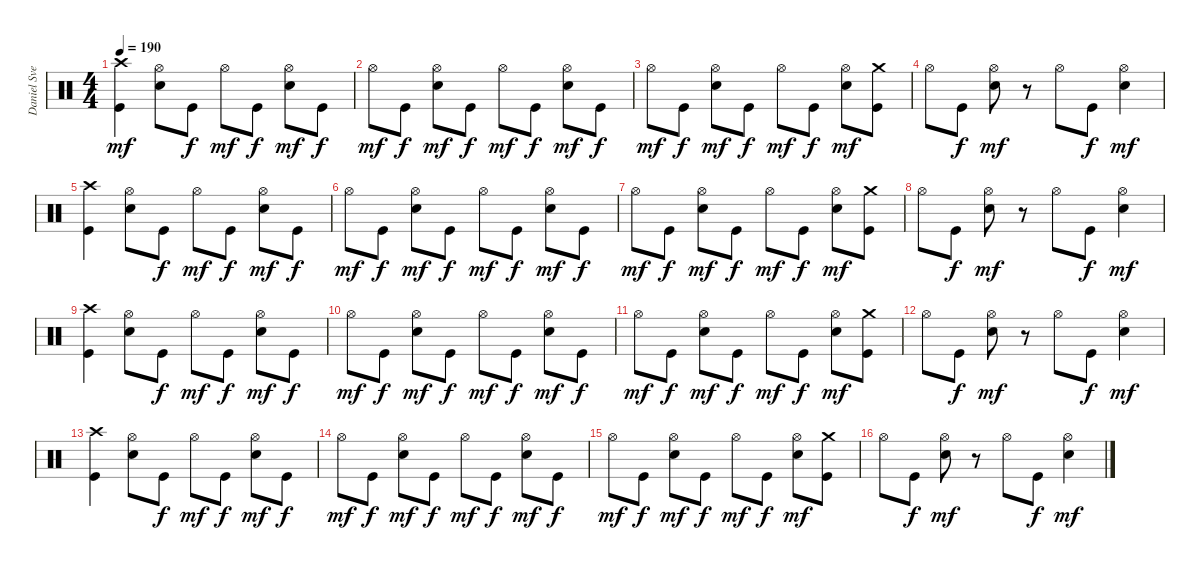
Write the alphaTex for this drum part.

\track ("Daniel Svensson" "Daniel Sve") {instrument percussion}
\staff {score}
\articulation defaults
\ts (4 4)
\tempo 190
\clef neutral
\ks c
("Kick (hit)" "Crash high (hit)").4{dy mf} ("Electric Snare (hit)" "Hi-Hat (open)").8 "Kick (hit)".8{dy f} "Hi-Hat (open)".8{dy mf} "Kick (hit)".8{dy f} ("Electric Snare (hit)" "Hi-Hat (open)").8{dy mf} "Kick (hit)".8{dy f} |
"Hi-Hat (open)".8{dy mf} "Kick (hit)".8{dy f} ("Electric Snare (hit)" "Hi-Hat (open)").8{dy mf} "Kick (hit)".8{dy f} "Hi-Hat (open)".8{dy mf} "Kick (hit)".8{dy f} ("Electric Snare (hit)" "Hi-Hat (open)").8{dy mf} "Kick (hit)".8{dy f} |
"Hi-Hat (open)".8{dy mf} "Kick (hit)".8{dy f} ("Electric Snare (hit)" "Hi-Hat (open)").8{dy mf} "Kick (hit)".8{dy f} "Hi-Hat (open)".8{dy mf} "Kick (hit)".8{dy f} ("Electric Snare (hit)" "Hi-Hat (open)").8{dy mf} ("Kick (hit)" "Crash medium (hit)").8 |
"Hi-Hat (open)".8 "Kick (hit)".8{dy f} ("Electric Snare (hit)" "Hi-Hat (open)").8{dy mf} r.8 "Hi-Hat (open)".8 "Kick (hit)".8{dy f} ("Electric Snare (hit)" "Hi-Hat (open)").4{dy mf} |
("Kick (hit)" "Crash high (hit)").4 ("Electric Snare (hit)" "Hi-Hat (open)").8 "Kick (hit)".8{dy f} "Hi-Hat (open)".8{dy mf} "Kick (hit)".8{dy f} ("Electric Snare (hit)" "Hi-Hat (open)").8{dy mf} "Kick (hit)".8{dy f} |
"Hi-Hat (open)".8{dy mf} "Kick (hit)".8{dy f} ("Electric Snare (hit)" "Hi-Hat (open)").8{dy mf} "Kick (hit)".8{dy f} "Hi-Hat (open)".8{dy mf} "Kick (hit)".8{dy f} ("Electric Snare (hit)" "Hi-Hat (open)").8{dy mf} "Kick (hit)".8{dy f} |
"Hi-Hat (open)".8{dy mf} "Kick (hit)".8{dy f} ("Electric Snare (hit)" "Hi-Hat (open)").8{dy mf} "Kick (hit)".8{dy f} "Hi-Hat (open)".8{dy mf} "Kick (hit)".8{dy f} ("Electric Snare (hit)" "Hi-Hat (open)").8{dy mf} ("Kick (hit)" "Crash medium (hit)").8 |
"Hi-Hat (open)".8 "Kick (hit)".8{dy f} ("Electric Snare (hit)" "Hi-Hat (open)").8{dy mf} r.8 "Hi-Hat (open)".8 "Kick (hit)".8{dy f} ("Electric Snare (hit)" "Hi-Hat (open)").4{dy mf} |
("Kick (hit)" "Crash high (hit)").4 ("Electric Snare (hit)" "Hi-Hat (open)").8 "Kick (hit)".8{dy f} "Hi-Hat (open)".8{dy mf} "Kick (hit)".8{dy f} ("Electric Snare (hit)" "Hi-Hat (open)").8{dy mf} "Kick (hit)".8{dy f} |
"Hi-Hat (open)".8{dy mf} "Kick (hit)".8{dy f} ("Electric Snare (hit)" "Hi-Hat (open)").8{dy mf} "Kick (hit)".8{dy f} "Hi-Hat (open)".8{dy mf} "Kick (hit)".8{dy f} ("Electric Snare (hit)" "Hi-Hat (open)").8{dy mf} "Kick (hit)".8{dy f} |
"Hi-Hat (open)".8{dy mf} "Kick (hit)".8{dy f} ("Electric Snare (hit)" "Hi-Hat (open)").8{dy mf} "Kick (hit)".8{dy f} "Hi-Hat (open)".8{dy mf} "Kick (hit)".8{dy f} ("Electric Snare (hit)" "Hi-Hat (open)").8{dy mf} ("Kick (hit)" "Crash medium (hit)").8 |
"Hi-Hat (open)".8 "Kick (hit)".8{dy f} ("Electric Snare (hit)" "Hi-Hat (open)").8{dy mf} r.8 "Hi-Hat (open)".8 "Kick (hit)".8{dy f} ("Electric Snare (hit)" "Hi-Hat (open)").4{dy mf} |
("Kick (hit)" "Crash high (hit)").4 ("Electric Snare (hit)" "Hi-Hat (open)").8 "Kick (hit)".8{dy f} "Hi-Hat (open)".8{dy mf} "Kick (hit)".8{dy f} ("Electric Snare (hit)" "Hi-Hat (open)").8{dy mf} "Kick (hit)".8{dy f} |
"Hi-Hat (open)".8{dy mf} "Kick (hit)".8{dy f} ("Electric Snare (hit)" "Hi-Hat (open)").8{dy mf} "Kick (hit)".8{dy f} "Hi-Hat (open)".8{dy mf} "Kick (hit)".8{dy f} ("Electric Snare (hit)" "Hi-Hat (open)").8{dy mf} "Kick (hit)".8{dy f} |
"Hi-Hat (open)".8{dy mf} "Kick (hit)".8{dy f} ("Electric Snare (hit)" "Hi-Hat (open)").8{dy mf} "Kick (hit)".8{dy f} "Hi-Hat (open)".8{dy mf} "Kick (hit)".8{dy f} ("Electric Snare (hit)" "Hi-Hat (open)").8{dy mf} ("Kick (hit)" "Crash medium (hit)").8 |
"Hi-Hat (open)".8 "Kick (hit)".8{dy f} ("Electric Snare (hit)" "Hi-Hat (open)").8{dy mf} r.8 "Hi-Hat (open)".8 "Kick (hit)".8{dy f} ("Electric Snare (hit)" "Hi-Hat (open)").4{dy mf}
